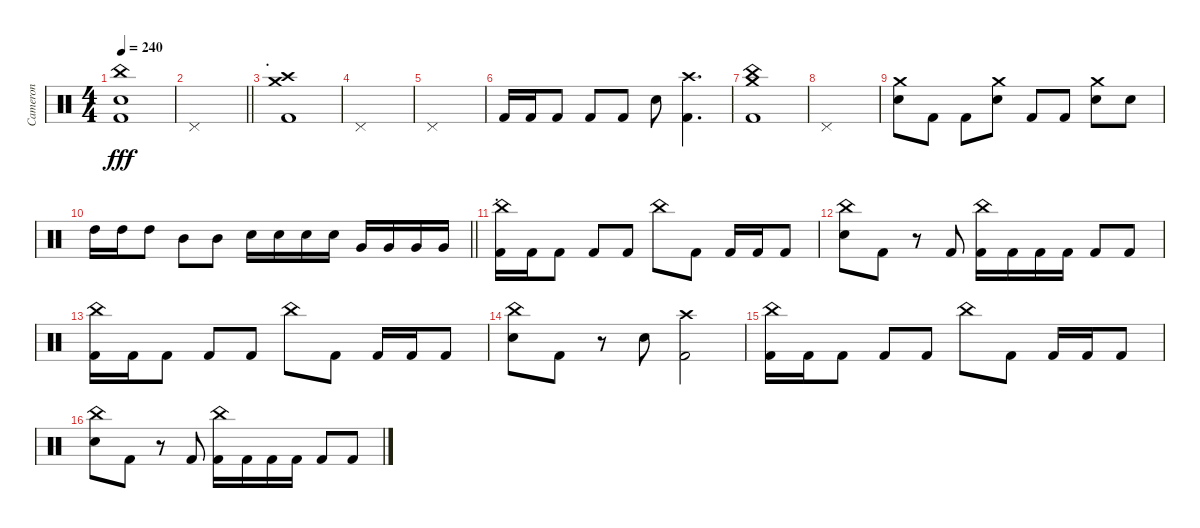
\track ("Cameron" "Cameron") {instrument percussion}
\staff {score}
\articulation defaults
\ts (4 4)
\tempo 240
\clef neutral
\ks c
("China (hit)" "Electric Snare (hit)" "Kick (hit) 2").1{dy fff} |
\barLineRight lightlight "Pedal Hi-Hat (hit)".1
|
\section ("" ".")
("Crash high (hit)" "Crash medium (hit)" "Kick (hit) 2").1 |
"Pedal Hi-Hat (hit)".1 |
"Pedal Hi-Hat (hit)".1 |
"Kick (hit) 2".16 "Kick (hit) 2".16 "Kick (hit) 2".8 "Kick (hit) 2".8 "Kick (hit) 2".8 "Electric Snare (hit)".8 ("Crash high (hit)" "Kick (hit) 2").4{d} |
("China (hit)" "Crash medium (hit)" "Kick (hit) 2").1 |
"Pedal Hi-Hat (hit)".1 |
("Crash medium (hit)" "Electric Snare (hit)").8 "Kick (hit) 2".8 "Kick (hit) 2".8 ("Crash medium (hit)" "Electric Snare (hit)").8 "Kick (hit) 2".8 "Kick (hit) 2".8 ("Crash medium (hit)" "Electric Snare (hit)").8 "Electric Snare (hit)".8 |
\barLineRight lightlight "High Tom (hit)".16 "High Tom (hit)".16 "High Tom (hit)".8 "Mid Tom (hit)".8 "Mid Tom (hit)".8 "Electric Snare (hit)".16 "Electric Snare (hit)".16 "Electric Snare (hit)".16 "Electric Snare (hit)".16 "Very Low Tom (hit)".16 "Very Low Tom (hit)".16 "Very Low Tom (hit)".16 "Very Low Tom (hit)".16
|
\section ("" ".")
("China (hit)" "Kick (hit) 2").16 "Kick (hit) 2".16 "Kick (hit) 2".8 "Kick (hit) 2".8 "Kick (hit) 2".8 "China (hit)".8 "Kick (hit) 2".8 "Kick (hit) 2".16 "Kick (hit) 2".16 "Kick (hit) 2".8 |
("China (hit)" "Electric Snare (hit)").8 "Kick (hit) 2".8 r.8 "Kick (hit) 2".8 ("China (hit)" "Kick (hit) 2").16 "Kick (hit) 2".16 "Kick (hit) 2".16 "Kick (hit) 2".16 "Kick (hit) 2".8 "Kick (hit) 2".8 |
("China (hit)" "Kick (hit) 2").16 "Kick (hit) 2".16 "Kick (hit) 2".8 "Kick (hit) 2".8 "Kick (hit) 2".8 "China (hit)".8 "Kick (hit) 2".8 "Kick (hit) 2".16 "Kick (hit) 2".16 "Kick (hit) 2".8 |
("China (hit)" "Electric Snare (hit)").8 "Kick (hit) 2".8 r.8 "Electric Snare (hit)".8 ("Crash high (hit)" "Kick (hit) 2").2 |
("China (hit)" "Kick (hit) 2").16 "Kick (hit) 2".16 "Kick (hit) 2".8 "Kick (hit) 2".8 "Kick (hit) 2".8 "China (hit)".8 "Kick (hit) 2".8 "Kick (hit) 2".16 "Kick (hit) 2".16 "Kick (hit) 2".8 |
("China (hit)" "Electric Snare (hit)").8 "Kick (hit) 2".8 r.8 "Kick (hit) 2".8 ("China (hit)" "Kick (hit) 2").16 "Kick (hit) 2".16 "Kick (hit) 2".16 "Kick (hit) 2".16 "Kick (hit) 2".8 "Kick (hit) 2".8
